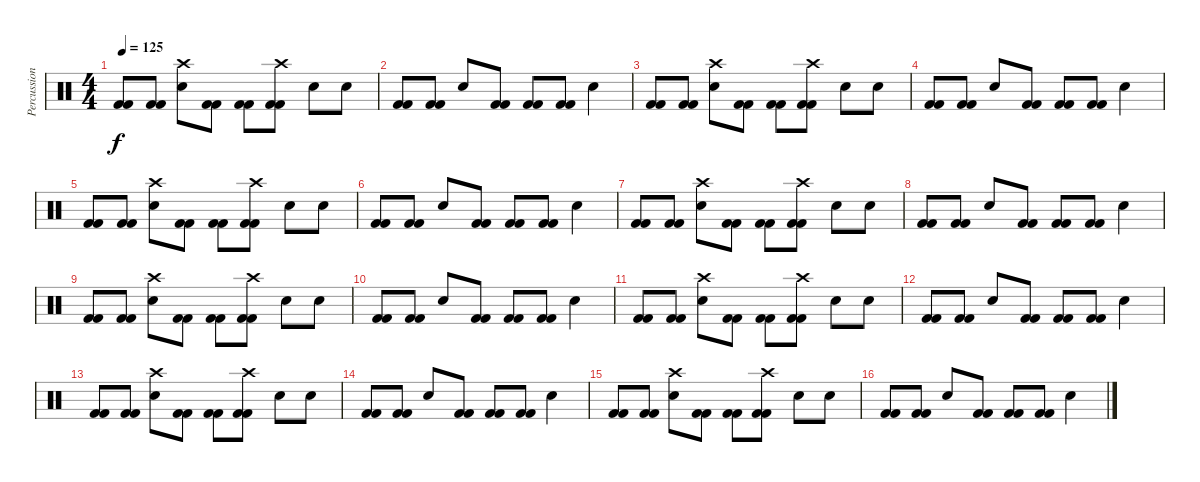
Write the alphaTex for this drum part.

\track ("Percussioni" "Percussion") {instrument percussion}
\staff {score}
\articulation defaults
\ts (4 4)
\tempo 125
\clef neutral
\ks c
("Kick (hit) 2" "Kick (hit) 2").8{dy f} ("Kick (hit) 2" "Kick (hit) 2").8 ("Electric Snare (hit)" "Crash high (hit)").8 ("Kick (hit) 2" "Kick (hit) 2").8 ("Kick (hit) 2" "Kick (hit) 2").8 ("Kick (hit) 2" "Kick (hit) 2" "Crash high (hit)").8 "Electric Snare (hit)".8 "Electric Snare (hit)".8 |
("Kick (hit) 2" "Kick (hit) 2").8 ("Kick (hit) 2" "Kick (hit) 2").8 "Electric Snare (hit)".8 ("Kick (hit) 2" "Kick (hit) 2").8 ("Kick (hit) 2" "Kick (hit) 2").8 ("Kick (hit) 2" "Kick (hit) 2").8 "Electric Snare (hit)".4 |
("Kick (hit) 2" "Kick (hit) 2").8 ("Kick (hit) 2" "Kick (hit) 2").8 ("Electric Snare (hit)" "Crash high (hit)").8 ("Kick (hit) 2" "Kick (hit) 2").8 ("Kick (hit) 2" "Kick (hit) 2").8 ("Kick (hit) 2" "Kick (hit) 2" "Crash high (hit)").8 "Electric Snare (hit)".8 "Electric Snare (hit)".8 |
("Kick (hit) 2" "Kick (hit) 2").8 ("Kick (hit) 2" "Kick (hit) 2").8 "Electric Snare (hit)".8 ("Kick (hit) 2" "Kick (hit) 2").8 ("Kick (hit) 2" "Kick (hit) 2").8 ("Kick (hit) 2" "Kick (hit) 2").8 "Electric Snare (hit)".4 |
("Kick (hit) 2" "Kick (hit) 2").8 ("Kick (hit) 2" "Kick (hit) 2").8 ("Electric Snare (hit)" "Crash high (hit)").8 ("Kick (hit) 2" "Kick (hit) 2").8 ("Kick (hit) 2" "Kick (hit) 2").8 ("Kick (hit) 2" "Kick (hit) 2" "Crash high (hit)").8 "Electric Snare (hit)".8 "Electric Snare (hit)".8 |
("Kick (hit) 2" "Kick (hit) 2").8 ("Kick (hit) 2" "Kick (hit) 2").8 "Electric Snare (hit)".8 ("Kick (hit) 2" "Kick (hit) 2").8 ("Kick (hit) 2" "Kick (hit) 2").8 ("Kick (hit) 2" "Kick (hit) 2").8 "Electric Snare (hit)".4 |
("Kick (hit) 2" "Kick (hit) 2").8 ("Kick (hit) 2" "Kick (hit) 2").8 ("Electric Snare (hit)" "Crash high (hit)").8 ("Kick (hit) 2" "Kick (hit) 2").8 ("Kick (hit) 2" "Kick (hit) 2").8 ("Kick (hit) 2" "Kick (hit) 2" "Crash high (hit)").8 "Electric Snare (hit)".8 "Electric Snare (hit)".8 |
("Kick (hit) 2" "Kick (hit) 2").8 ("Kick (hit) 2" "Kick (hit) 2").8 "Electric Snare (hit)".8 ("Kick (hit) 2" "Kick (hit) 2").8 ("Kick (hit) 2" "Kick (hit) 2").8 ("Kick (hit) 2" "Kick (hit) 2").8 "Electric Snare (hit)".4 |
("Kick (hit) 2" "Kick (hit) 2").8 ("Kick (hit) 2" "Kick (hit) 2").8 ("Electric Snare (hit)" "Crash high (hit)").8 ("Kick (hit) 2" "Kick (hit) 2").8 ("Kick (hit) 2" "Kick (hit) 2").8 ("Kick (hit) 2" "Kick (hit) 2" "Crash high (hit)").8 "Electric Snare (hit)".8 "Electric Snare (hit)".8 |
("Kick (hit) 2" "Kick (hit) 2").8 ("Kick (hit) 2" "Kick (hit) 2").8 "Electric Snare (hit)".8 ("Kick (hit) 2" "Kick (hit) 2").8 ("Kick (hit) 2" "Kick (hit) 2").8 ("Kick (hit) 2" "Kick (hit) 2").8 "Electric Snare (hit)".4 |
("Kick (hit) 2" "Kick (hit) 2").8 ("Kick (hit) 2" "Kick (hit) 2").8 ("Electric Snare (hit)" "Crash high (hit)").8 ("Kick (hit) 2" "Kick (hit) 2").8 ("Kick (hit) 2" "Kick (hit) 2").8 ("Kick (hit) 2" "Kick (hit) 2" "Crash high (hit)").8 "Electric Snare (hit)".8 "Electric Snare (hit)".8 |
("Kick (hit) 2" "Kick (hit) 2").8 ("Kick (hit) 2" "Kick (hit) 2").8 "Electric Snare (hit)".8 ("Kick (hit) 2" "Kick (hit) 2").8 ("Kick (hit) 2" "Kick (hit) 2").8 ("Kick (hit) 2" "Kick (hit) 2").8 "Electric Snare (hit)".4 |
("Kick (hit) 2" "Kick (hit) 2").8 ("Kick (hit) 2" "Kick (hit) 2").8 ("Electric Snare (hit)" "Crash high (hit)").8 ("Kick (hit) 2" "Kick (hit) 2").8 ("Kick (hit) 2" "Kick (hit) 2").8 ("Kick (hit) 2" "Kick (hit) 2" "Crash high (hit)").8 "Electric Snare (hit)".8 "Electric Snare (hit)".8 |
("Kick (hit) 2" "Kick (hit) 2").8 ("Kick (hit) 2" "Kick (hit) 2").8 "Electric Snare (hit)".8 ("Kick (hit) 2" "Kick (hit) 2").8 ("Kick (hit) 2" "Kick (hit) 2").8 ("Kick (hit) 2" "Kick (hit) 2").8 "Electric Snare (hit)".4 |
("Kick (hit) 2" "Kick (hit) 2").8 ("Kick (hit) 2" "Kick (hit) 2").8 ("Electric Snare (hit)" "Crash high (hit)").8 ("Kick (hit) 2" "Kick (hit) 2").8 ("Kick (hit) 2" "Kick (hit) 2").8 ("Kick (hit) 2" "Kick (hit) 2" "Crash high (hit)").8 "Electric Snare (hit)".8 "Electric Snare (hit)".8 |
("Kick (hit) 2" "Kick (hit) 2").8 ("Kick (hit) 2" "Kick (hit) 2").8 "Electric Snare (hit)".8 ("Kick (hit) 2" "Kick (hit) 2").8 ("Kick (hit) 2" "Kick (hit) 2").8 ("Kick (hit) 2" "Kick (hit) 2").8 "Electric Snare (hit)".4
